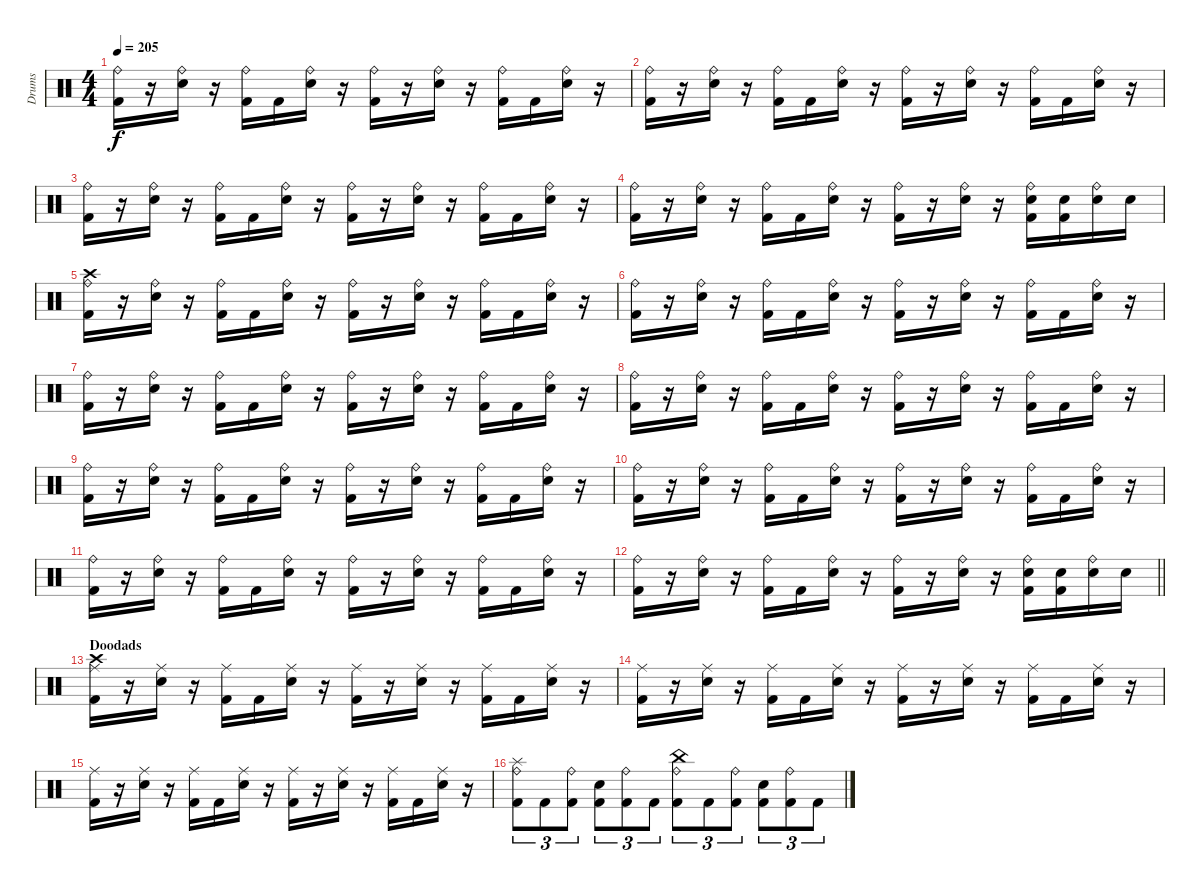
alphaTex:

\track ("Drums" "Drums") {instrument percussion}
\staff {score}
\articulation defaults
\ts (4 4)
\tempo 205
\clef neutral
\ks c
("Ride (bell)" "Kick (hit) 2").16{dy f} r.16 ("Ride (bell)" "Snare (hit) 2").16 r.16 ("Ride (bell)" "Kick (hit) 2").16 "Kick (hit) 2".16 ("Ride (bell)" "Snare (hit) 2").16 r.16 ("Ride (bell)" "Kick (hit) 2").16 r.16 ("Ride (bell)" "Snare (hit) 2").16 r.16 ("Ride (bell)" "Kick (hit) 2").16 "Kick (hit) 2".16 ("Ride (bell)" "Snare (hit) 2").16 r.16 |
("Ride (bell)" "Kick (hit) 2").16 r.16 ("Ride (bell)" "Snare (hit) 2").16 r.16 ("Ride (bell)" "Kick (hit) 2").16 "Kick (hit) 2".16 ("Ride (bell)" "Snare (hit) 2").16 r.16 ("Ride (bell)" "Kick (hit) 2").16 r.16 ("Ride (bell)" "Snare (hit) 2").16 r.16 ("Ride (bell)" "Kick (hit) 2").16 "Kick (hit) 2".16 ("Ride (bell)" "Snare (hit) 2").16 r.16 |
("Ride (bell)" "Kick (hit) 2").16 r.16 ("Ride (bell)" "Snare (hit) 2").16 r.16 ("Ride (bell)" "Kick (hit) 2").16 "Kick (hit) 2".16 ("Ride (bell)" "Snare (hit) 2").16 r.16 ("Ride (bell)" "Kick (hit) 2").16 r.16 ("Ride (bell)" "Snare (hit) 2").16 r.16 ("Ride (bell)" "Kick (hit) 2").16 "Kick (hit) 2".16 ("Ride (bell)" "Snare (hit) 2").16 r.16 |
("Ride (bell)" "Kick (hit) 2").16 r.16 ("Ride (bell)" "Snare (hit) 2").16 r.16 ("Ride (bell)" "Kick (hit) 2").16 "Kick (hit) 2".16 ("Ride (bell)" "Snare (hit) 2").16 r.16 ("Ride (bell)" "Kick (hit) 2").16 r.16 ("Ride (bell)" "Snare (hit) 2").16 r.16 ("Ride (bell)" "Snare (hit) 2" "Kick (hit) 2").16 ("Snare (hit) 2" "Kick (hit) 2").16 ("Ride (bell)" "Snare (hit) 2").16 "Snare (hit) 2".16 |
("Crash high (hit)" "Ride (bell)" "Kick (hit) 2").16 r.16 ("Ride (bell)" "Snare (hit) 2").16 r.16 ("Ride (bell)" "Kick (hit) 2").16 "Kick (hit) 2".16 ("Ride (bell)" "Snare (hit) 2").16 r.16 ("Ride (bell)" "Kick (hit) 2").16 r.16 ("Ride (bell)" "Snare (hit) 2").16 r.16 ("Ride (bell)" "Kick (hit) 2").16 "Kick (hit) 2".16 ("Ride (bell)" "Snare (hit) 2").16 r.16 |
("Ride (bell)" "Kick (hit) 2").16 r.16 ("Ride (bell)" "Snare (hit) 2").16 r.16 ("Ride (bell)" "Kick (hit) 2").16 "Kick (hit) 2".16 ("Ride (bell)" "Snare (hit) 2").16 r.16 ("Ride (bell)" "Kick (hit) 2").16 r.16 ("Ride (bell)" "Snare (hit) 2").16 r.16 ("Ride (bell)" "Kick (hit) 2").16 "Kick (hit) 2".16 ("Ride (bell)" "Snare (hit) 2").16 r.16 |
("Ride (bell)" "Kick (hit) 2").16 r.16 ("Ride (bell)" "Snare (hit) 2").16 r.16 ("Ride (bell)" "Kick (hit) 2").16 "Kick (hit) 2".16 ("Ride (bell)" "Snare (hit) 2").16 r.16 ("Ride (bell)" "Kick (hit) 2").16 r.16 ("Ride (bell)" "Snare (hit) 2").16 r.16 ("Ride (bell)" "Kick (hit) 2").16 "Kick (hit) 2".16 ("Ride (bell)" "Snare (hit) 2").16 r.16 |
("Ride (bell)" "Kick (hit) 2").16 r.16 ("Ride (bell)" "Snare (hit) 2").16 r.16 ("Ride (bell)" "Kick (hit) 2").16 "Kick (hit) 2".16 ("Ride (bell)" "Snare (hit) 2").16 r.16 ("Ride (bell)" "Kick (hit) 2").16 r.16 ("Ride (bell)" "Snare (hit) 2").16 r.16 ("Ride (bell)" "Kick (hit) 2").16 "Kick (hit) 2".16 ("Ride (bell)" "Snare (hit) 2").16 r.16 |
("Ride (bell)" "Kick (hit) 2").16 r.16 ("Ride (bell)" "Snare (hit) 2").16 r.16 ("Ride (bell)" "Kick (hit) 2").16 "Kick (hit) 2".16 ("Ride (bell)" "Snare (hit) 2").16 r.16 ("Ride (bell)" "Kick (hit) 2").16 r.16 ("Ride (bell)" "Snare (hit) 2").16 r.16 ("Ride (bell)" "Kick (hit) 2").16 "Kick (hit) 2".16 ("Ride (bell)" "Snare (hit) 2").16 r.16 |
("Ride (bell)" "Kick (hit) 2").16 r.16 ("Ride (bell)" "Snare (hit) 2").16 r.16 ("Ride (bell)" "Kick (hit) 2").16 "Kick (hit) 2".16 ("Ride (bell)" "Snare (hit) 2").16 r.16 ("Ride (bell)" "Kick (hit) 2").16 r.16 ("Ride (bell)" "Snare (hit) 2").16 r.16 ("Ride (bell)" "Kick (hit) 2").16 "Kick (hit) 2".16 ("Ride (bell)" "Snare (hit) 2").16 r.16 |
("Ride (bell)" "Kick (hit) 2").16 r.16 ("Ride (bell)" "Snare (hit) 2").16 r.16 ("Ride (bell)" "Kick (hit) 2").16 "Kick (hit) 2".16 ("Ride (bell)" "Snare (hit) 2").16 r.16 ("Ride (bell)" "Kick (hit) 2").16 r.16 ("Ride (bell)" "Snare (hit) 2").16 r.16 ("Ride (bell)" "Kick (hit) 2").16 "Kick (hit) 2".16 ("Ride (bell)" "Snare (hit) 2").16 r.16 |
\barLineRight lightlight
("Ride (bell)" "Kick (hit) 2").16 r.16 ("Ride (bell)" "Snare (hit) 2").16 r.16 ("Ride (bell)" "Kick (hit) 2").16 "Kick (hit) 2".16 ("Ride (bell)" "Snare (hit) 2").16 r.16 ("Ride (bell)" "Kick (hit) 2").16 r.16 ("Ride (bell)" "Snare (hit) 2").16 r.16 ("Ride (bell)" "Snare (hit) 2" "Kick (hit) 2").16 ("Snare (hit) 2" "Kick (hit) 2").16 ("Ride (bell)" "Snare (hit) 2").16 "Snare (hit) 2".16 |
\section ("" "Doodads")
("Crash high (hit)" "Ride (middle)" "Kick (hit) 2").16 r.16 ("Ride (middle)" "Snare (hit) 2").16 r.16 ("Ride (middle)" "Kick (hit) 2").16 "Kick (hit) 2".16 ("Ride (middle)" "Snare (hit) 2").16 r.16 ("Ride (middle)" "Kick (hit) 2").16 r.16 ("Ride (middle)" "Snare (hit) 2").16 r.16 ("Ride (middle)" "Kick (hit) 2").16 "Kick (hit) 2".16 ("Ride (middle)" "Snare (hit) 2").16 r.16 |
("Ride (middle)" "Kick (hit) 2").16 r.16 ("Ride (middle)" "Snare (hit) 2").16 r.16 ("Ride (middle)" "Kick (hit) 2").16 "Kick (hit) 2".16 ("Ride (middle)" "Snare (hit) 2").16 r.16 ("Ride (middle)" "Kick (hit) 2").16 r.16 ("Ride (middle)" "Snare (hit) 2").16 r.16 ("Ride (middle)" "Kick (hit) 2").16 "Kick (hit) 2".16 ("Ride (middle)" "Snare (hit) 2").16 r.16 |
("Ride (middle)" "Kick (hit) 2").16 r.16 ("Ride (middle)" "Snare (hit) 2").16 r.16 ("Ride (middle)" "Kick (hit) 2").16 "Kick (hit) 2".16 ("Ride (middle)" "Snare (hit) 2").16 r.16 ("Ride (middle)" "Kick (hit) 2").16 r.16 ("Ride (middle)" "Snare (hit) 2").16 r.16 ("Ride (middle)" "Kick (hit) 2").16 "Kick (hit) 2".16 ("Ride (middle)" "Snare (hit) 2").16 r.16 |
("Splash (hit)" "Ride (bell)" "Kick (hit) 2").8{tu (3 2)} "Kick (hit) 2".8{tu (3 2)} ("Ride (bell)" "Kick (hit) 2").8{tu (3 2)} ("Snare (hit) 2" "Kick (hit) 2").8{tu (3 2)} ("Ride (bell)" "Kick (hit) 2").8{tu (3 2)} "Kick (hit) 2".8{tu (3 2)} ("China (hit)" "Ride (bell)" "Kick (hit) 2").8{tu (3 2)} "Kick (hit) 2".8{tu (3 2)} ("Ride (bell)" "Kick (hit) 2").8{tu (3 2)} ("Snare (hit) 2" "Kick (hit) 2").8{tu (3 2)} ("Ride (bell)" "Kick (hit) 2").8{tu (3 2)} "Kick (hit) 2".8{tu (3 2)}
